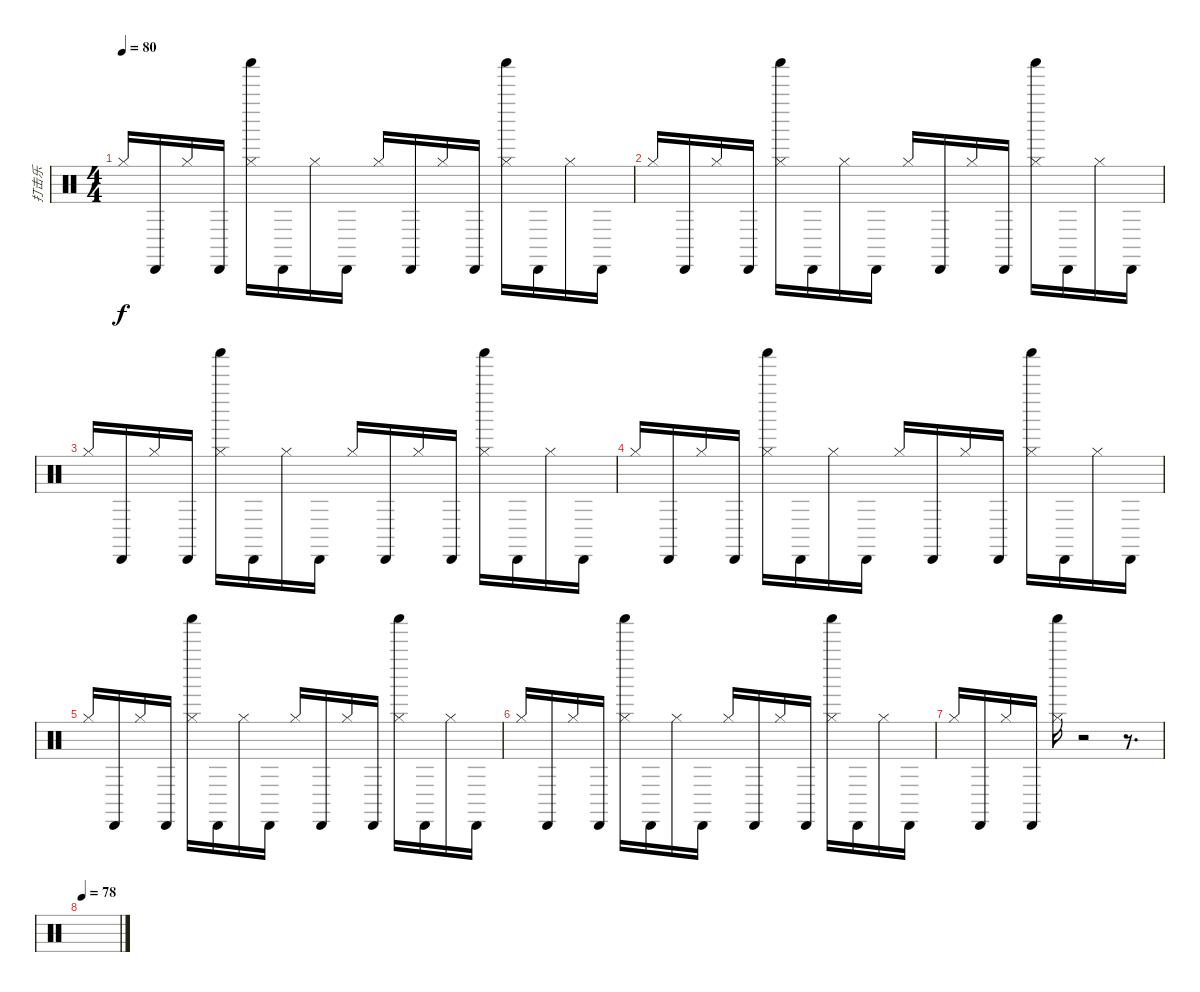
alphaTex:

\track ("打击乐" "打击乐") {instrument percussion}
\staff {score}
\articulation defaults
\ts (4 4)
\tempo 80
\clef neutral
\ks c "Hi-Hat (closed)".16{dy f volume 10} "Cabasa (hit)".16 "Hi-Hat (closed)".16 "Cabasa (hit)".16
("Shaker (hit)" "Hi-Hat (closed)").16{volume 16} "Cabasa (hit)".16{volume 11} "Hi-Hat (closed)".16 "Cabasa (hit)".16 "Hi-Hat (closed)".16 "Cabasa (hit)".16 "Hi-Hat (closed)".16 "Cabasa (hit)".16 ("Shaker (hit)" "Hi-Hat (closed)").16{volume 16} "Cabasa (hit)".16{volume 11} "Hi-Hat (closed)".16 "Cabasa (hit)".16 |
"Hi-Hat (closed)".16{volume 10} "Cabasa (hit)".16 "Hi-Hat (closed)".16 "Cabasa (hit)".16 ("Shaker (hit)" "Hi-Hat (closed)").16{volume 16} "Cabasa (hit)".16{volume 11} "Hi-Hat (closed)".16 "Cabasa (hit)".16 "Hi-Hat (closed)".16 "Cabasa (hit)".16 "Hi-Hat (closed)".16 "Cabasa (hit)".16 ("Shaker (hit)" "Hi-Hat (closed)").16{volume 16} "Cabasa (hit)".16{volume 11} "Hi-Hat (closed)".16 "Cabasa (hit)".16 |
"Hi-Hat (closed)".16{volume 10} "Cabasa (hit)".16 "Hi-Hat (closed)".16 "Cabasa (hit)".16 ("Shaker (hit)" "Hi-Hat (closed)").16{volume 16} "Cabasa (hit)".16{volume 11} "Hi-Hat (closed)".16 "Cabasa (hit)".16 "Hi-Hat (closed)".16 "Cabasa (hit)".16 "Hi-Hat (closed)".16 "Cabasa (hit)".16 ("Shaker (hit)" "Hi-Hat (closed)").16{volume 16} "Cabasa (hit)".16{volume 11} "Hi-Hat (closed)".16 "Cabasa (hit)".16 |
"Hi-Hat (closed)".16{volume 10} "Cabasa (hit)".16 "Hi-Hat (closed)".16 "Cabasa (hit)".16 ("Shaker (hit)" "Hi-Hat (closed)").16{volume 16} "Cabasa (hit)".16{volume 11} "Hi-Hat (closed)".16 "Cabasa (hit)".16 "Hi-Hat (closed)".16 "Cabasa (hit)".16 "Hi-Hat (closed)".16 "Cabasa (hit)".16 ("Shaker (hit)" "Hi-Hat (closed)").16{volume 16} "Cabasa (hit)".16{volume 11} "Hi-Hat (closed)".16 "Cabasa (hit)".16 |
"Hi-Hat (closed)".16{volume 10} "Cabasa (hit)".16 "Hi-Hat (closed)".16 "Cabasa (hit)".16 ("Shaker (hit)" "Hi-Hat (closed)").16{volume 16} "Cabasa (hit)".16{volume 11} "Hi-Hat (closed)".16 "Cabasa (hit)".16 "Hi-Hat (closed)".16 "Cabasa (hit)".16 "Hi-Hat (closed)".16 "Cabasa (hit)".16 ("Shaker (hit)" "Hi-Hat (closed)").16{volume 16} "Cabasa (hit)".16{volume 11} "Hi-Hat (closed)".16 "Cabasa (hit)".16 |
"Hi-Hat (closed)".16{volume 10} "Cabasa (hit)".16 "Hi-Hat (closed)".16 "Cabasa (hit)".16 ("Shaker (hit)" "Hi-Hat (closed)").16{volume 16} "Cabasa (hit)".16{volume 11} "Hi-Hat (closed)".16 "Cabasa (hit)".16 "Hi-Hat (closed)".16 "Cabasa (hit)".16 "Hi-Hat (closed)".16 "Cabasa (hit)".16 ("Shaker (hit)" "Hi-Hat (closed)").16{volume 16} "Cabasa (hit)".16{volume 11} "Hi-Hat (closed)".16 "Cabasa (hit)".16 |
"Hi-Hat (closed)".16{volume 10} "Cabasa (hit)".16 "Hi-Hat (closed)".16 "Cabasa (hit)".16 ("Shaker (hit)" "Hi-Hat (closed)").16{volume 16} r.2{volume 11} r.8{d} |
\tempo 78
